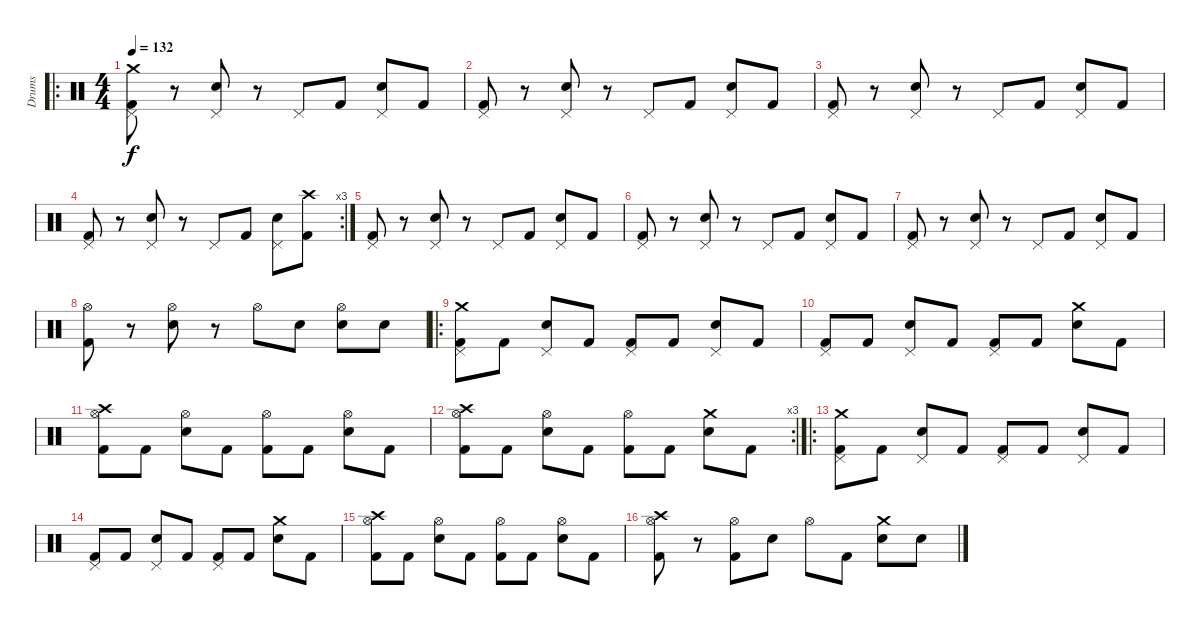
\track ("Drums" "Drums") {instrument percussion}
\staff {score}
\articulation defaults
\ro
\ts (4 4)
\tempo 132
\clef neutral
\ks c
("Crash medium (hit)" "Pedal Hi-Hat (hit)" "Kick (hit) 2").8{dy f} r.8 ("Pedal Hi-Hat (hit)" "Electric Snare (hit)").8 r.8 "Pedal Hi-Hat (hit)".8 "Kick (hit) 2".8 ("Pedal Hi-Hat (hit)" "Electric Snare (hit)").8 "Kick (hit) 2".8 |
("Pedal Hi-Hat (hit)" "Kick (hit) 2").8 r.8 ("Pedal Hi-Hat (hit)" "Electric Snare (hit)").8 r.8 "Pedal Hi-Hat (hit)".8 "Kick (hit) 2".8 ("Pedal Hi-Hat (hit)" "Electric Snare (hit)").8 "Kick (hit) 2".8 |
("Pedal Hi-Hat (hit)" "Kick (hit) 2").8 r.8 ("Pedal Hi-Hat (hit)" "Electric Snare (hit)").8 r.8 "Pedal Hi-Hat (hit)".8 "Kick (hit) 2".8 ("Pedal Hi-Hat (hit)" "Electric Snare (hit)").8 "Kick (hit) 2".8 |
\rc 3
("Pedal Hi-Hat (hit)" "Kick (hit) 2").8 r.8 ("Pedal Hi-Hat (hit)" "Electric Snare (hit)").8 r.8 "Pedal Hi-Hat (hit)".8 "Kick (hit) 2".8 ("Pedal Hi-Hat (hit)" "Electric Snare (hit)").8 ("Crash high (hit)" "Kick (hit) 2").8 |
("Pedal Hi-Hat (hit)" "Kick (hit) 2").8 r.8 ("Pedal Hi-Hat (hit)" "Electric Snare (hit)").8 r.8 "Pedal Hi-Hat (hit)".8 "Kick (hit) 2".8 ("Pedal Hi-Hat (hit)" "Electric Snare (hit)").8 "Kick (hit) 2".8 |
("Pedal Hi-Hat (hit)" "Kick (hit) 2").8 r.8 ("Pedal Hi-Hat (hit)" "Electric Snare (hit)").8 r.8 "Pedal Hi-Hat (hit)".8 "Kick (hit) 2".8 ("Pedal Hi-Hat (hit)" "Electric Snare (hit)").8 "Kick (hit) 2".8 |
("Pedal Hi-Hat (hit)" "Kick (hit) 2").8 r.8 ("Pedal Hi-Hat (hit)" "Electric Snare (hit)").8 r.8 "Pedal Hi-Hat (hit)".8 "Kick (hit) 2".8 ("Pedal Hi-Hat (hit)" "Electric Snare (hit)").8 "Kick (hit) 2".8 |
("Hi-Hat (open)" "Kick (hit) 2").8 r.8 ("Hi-Hat (open)" "Electric Snare (hit)").8 r.8 "Hi-Hat (open)".8 "Electric Snare (hit)".8 ("Hi-Hat (open)" "Electric Snare (hit)").8 "Electric Snare (hit)".8 |
\ro
("Crash medium (hit)" "Pedal Hi-Hat (hit)" "Kick (hit) 2").8 "Kick (hit) 2".8 ("Pedal Hi-Hat (hit)" "Electric Snare (hit)").8 "Kick (hit) 2".8 ("Pedal Hi-Hat (hit)" "Kick (hit) 2").8 "Kick (hit) 2".8 ("Pedal Hi-Hat (hit)" "Electric Snare (hit)").8 "Kick (hit) 2".8 |
("Pedal Hi-Hat (hit)" "Kick (hit) 2").8 "Kick (hit) 2".8 ("Pedal Hi-Hat (hit)" "Electric Snare (hit)").8 "Kick (hit) 2".8 ("Pedal Hi-Hat (hit)" "Kick (hit) 2").8 "Kick (hit) 2".8 ("Crash medium (hit)" "Electric Snare (hit)").8 "Kick (hit) 2".8 |
("Crash high (hit)" "Hi-Hat (open)" "Kick (hit) 2").8 "Kick (hit) 2".8 ("Hi-Hat (open)" "Electric Snare (hit)").8 "Kick (hit) 2".8 ("Hi-Hat (open)" "Kick (hit) 2").8 "Kick (hit) 2".8 ("Hi-Hat (open)" "Electric Snare (hit)").8 "Kick (hit) 2".8 |
\rc 3
("Crash high (hit)" "Hi-Hat (open)" "Kick (hit) 2").8 "Kick (hit) 2".8 ("Hi-Hat (open)" "Electric Snare (hit)").8 "Kick (hit) 2".8 ("Hi-Hat (open)" "Kick (hit) 2").8 "Kick (hit) 2".8 ("Crash medium (hit)" "Electric Snare (hit)").8 "Kick (hit) 2".8 |
\ro
("Crash medium (hit)" "Pedal Hi-Hat (hit)" "Kick (hit) 2").8 "Kick (hit) 2".8 ("Pedal Hi-Hat (hit)" "Electric Snare (hit)").8 "Kick (hit) 2".8 ("Pedal Hi-Hat (hit)" "Kick (hit) 2").8 "Kick (hit) 2".8 ("Pedal Hi-Hat (hit)" "Electric Snare (hit)").8 "Kick (hit) 2".8 |
("Pedal Hi-Hat (hit)" "Kick (hit) 2").8 "Kick (hit) 2".8 ("Pedal Hi-Hat (hit)" "Electric Snare (hit)").8 "Kick (hit) 2".8 ("Pedal Hi-Hat (hit)" "Kick (hit) 2").8 "Kick (hit) 2".8 ("Crash medium (hit)" "Electric Snare (hit)").8 "Kick (hit) 2".8 |
("Crash high (hit)" "Hi-Hat (open)" "Kick (hit) 2").8 "Kick (hit) 2".8 ("Hi-Hat (open)" "Electric Snare (hit)").8 "Kick (hit) 2".8 ("Hi-Hat (open)" "Kick (hit) 2").8 "Kick (hit) 2".8 ("Hi-Hat (open)" "Electric Snare (hit)").8 "Kick (hit) 2".8 |
("Crash high (hit)" "Hi-Hat (open)" "Kick (hit) 2").8 r.8 ("Hi-Hat (open)" "Kick (hit) 2").8 "Electric Snare (hit)".8 "Hi-Hat (open)".8 "Kick (hit) 2".8 ("Crash medium (hit)" "Electric Snare (hit)").8 "Electric Snare (hit)".8
